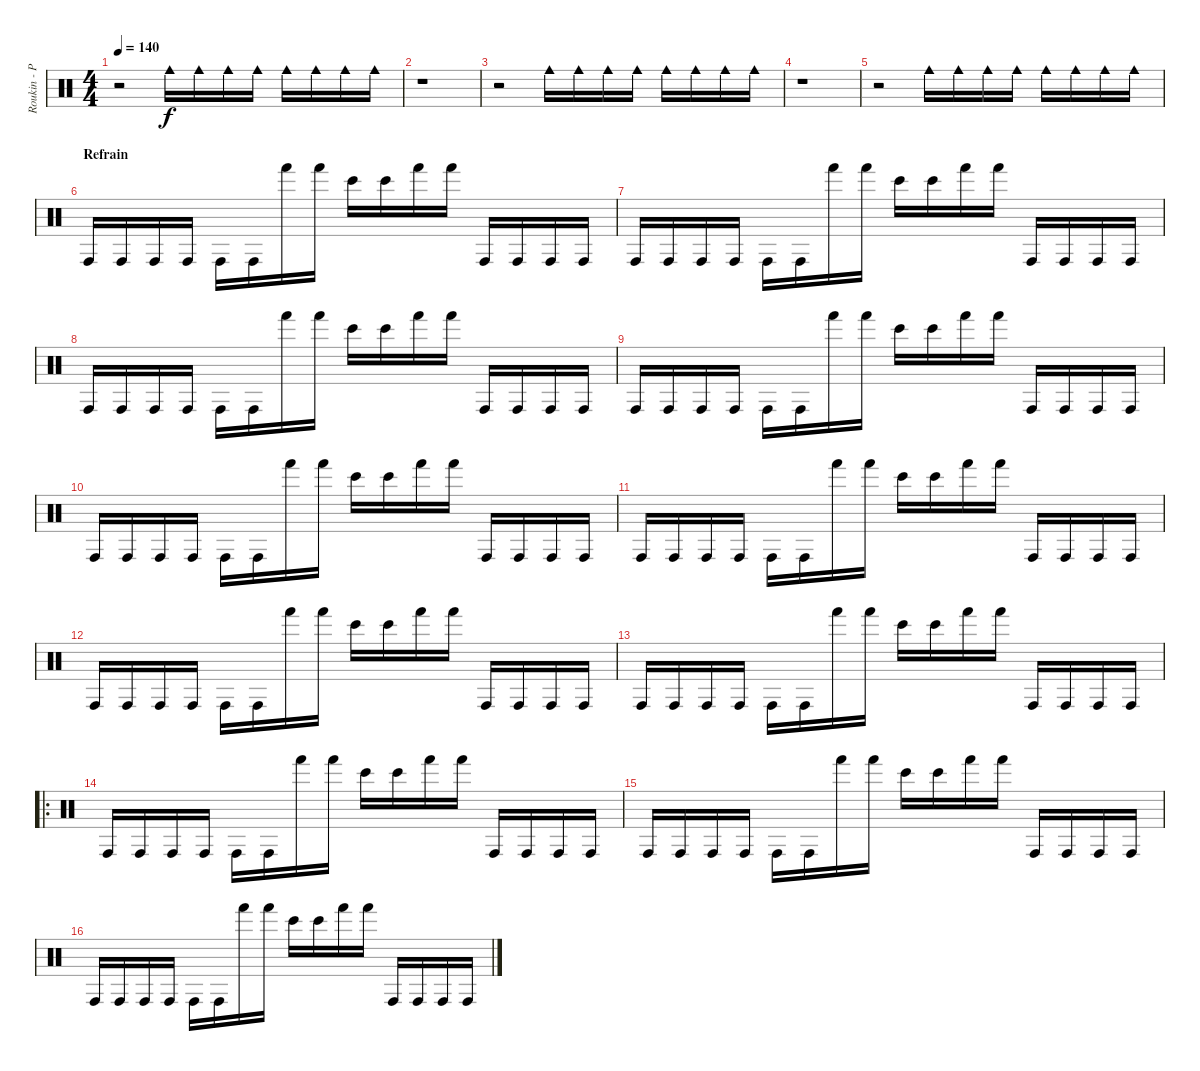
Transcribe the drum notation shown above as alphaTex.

\track ("Roukin - Percus" "Roukin - P") {instrument percussion}
\staff {score}
\articulation defaults
\ts (4 4)
\tempo 140
\clef neutral
\ks c
r.2{dy f} "Cowbell medium (hit)".16 "Cowbell medium (hit)".16 "Cowbell medium (hit)".16 "Cowbell medium (hit)".16 "Cowbell medium (hit)".16 "Cowbell medium (hit)".16 "Cowbell medium (hit)".16 "Cowbell medium (hit)".16 |
r.1 |
r.2 "Cowbell medium (hit)".16 "Cowbell medium (hit)".16 "Cowbell medium (hit)".16 "Cowbell medium (hit)".16 "Cowbell medium (hit)".16 "Cowbell medium (hit)".16 "Cowbell medium (hit)".16 "Cowbell medium (hit)".16 |
r.1 |
r.2 "Cowbell medium (hit)".16 "Cowbell medium (hit)".16 "Cowbell medium (hit)".16 "Cowbell medium (hit)".16 "Cowbell medium (hit)".16 "Cowbell medium (hit)".16 "Cowbell medium (hit)".16 "Cowbell medium (hit)".16 |
\section ("" "Refrain")
"Conga high (hit)".16 "Conga high (hit)".16 "Conga high (hit)".16 "Conga high (hit)".16 "Conga high (hit)".16 "Conga high (hit)".16 "Hand (hit)".16 "Hand (hit)".16 "Bongo High (hit)".16 "Bongo High (hit)".16 "Hand (hit)".16 "Hand (hit)".16 "Conga high (hit)".16 "Conga high (hit)".16 "Conga high (hit)".16 "Conga high (hit)".16 |
"Conga high (hit)".16 "Conga high (hit)".16 "Conga high (hit)".16 "Conga high (hit)".16 "Conga high (hit)".16 "Conga high (hit)".16 "Hand (hit)".16 "Hand (hit)".16 "Bongo High (hit)".16 "Bongo High (hit)".16 "Hand (hit)".16 "Hand (hit)".16 "Conga high (hit)".16 "Conga high (hit)".16 "Conga high (hit)".16 "Conga high (hit)".16 |
"Conga high (hit)".16 "Conga high (hit)".16 "Conga high (hit)".16 "Conga high (hit)".16 "Conga high (hit)".16 "Conga high (hit)".16 "Hand (hit)".16 "Hand (hit)".16 "Bongo High (hit)".16 "Bongo High (hit)".16 "Hand (hit)".16 "Hand (hit)".16 "Conga high (hit)".16 "Conga high (hit)".16 "Conga high (hit)".16 "Conga high (hit)".16 |
"Conga high (hit)".16 "Conga high (hit)".16 "Conga high (hit)".16 "Conga high (hit)".16 "Conga high (hit)".16 "Conga high (hit)".16 "Hand (hit)".16 "Hand (hit)".16 "Bongo High (hit)".16 "Bongo High (hit)".16 "Hand (hit)".16 "Hand (hit)".16 "Conga high (hit)".16 "Conga high (hit)".16 "Conga high (hit)".16 "Conga high (hit)".16 |
"Conga high (hit)".16 "Conga high (hit)".16 "Conga high (hit)".16 "Conga high (hit)".16 "Conga high (hit)".16 "Conga high (hit)".16 "Hand (hit)".16 "Hand (hit)".16 "Bongo High (hit)".16 "Bongo High (hit)".16 "Hand (hit)".16 "Hand (hit)".16 "Conga high (hit)".16 "Conga high (hit)".16 "Conga high (hit)".16 "Conga high (hit)".16 |
"Conga high (hit)".16 "Conga high (hit)".16 "Conga high (hit)".16 "Conga high (hit)".16 "Conga high (hit)".16 "Conga high (hit)".16 "Hand (hit)".16 "Hand (hit)".16 "Bongo High (hit)".16 "Bongo High (hit)".16 "Hand (hit)".16 "Hand (hit)".16 "Conga high (hit)".16 "Conga high (hit)".16 "Conga high (hit)".16 "Conga high (hit)".16 |
"Conga high (hit)".16 "Conga high (hit)".16 "Conga high (hit)".16 "Conga high (hit)".16 "Conga high (hit)".16 "Conga high (hit)".16 "Hand (hit)".16 "Hand (hit)".16 "Bongo High (hit)".16 "Bongo High (hit)".16 "Hand (hit)".16 "Hand (hit)".16 "Conga high (hit)".16 "Conga high (hit)".16 "Conga high (hit)".16 "Conga high (hit)".16 |
"Conga high (hit)".16 "Conga high (hit)".16 "Conga high (hit)".16 "Conga high (hit)".16 "Conga high (hit)".16 "Conga high (hit)".16 "Hand (hit)".16 "Hand (hit)".16 "Bongo High (hit)".16 "Bongo High (hit)".16 "Hand (hit)".16 "Hand (hit)".16 "Conga high (hit)".16 "Conga high (hit)".16 "Conga high (hit)".16 "Conga high (hit)".16 |
\ro "Conga high (hit)".16 "Conga high (hit)".16 "Conga high (hit)".16 "Conga high (hit)".16 "Conga high (hit)".16 "Conga high (hit)".16 "Hand (hit)".16 "Hand (hit)".16 "Bongo High (hit)".16 "Bongo High (hit)".16 "Hand (hit)".16 "Hand (hit)".16 "Conga high (hit)".16 "Conga high (hit)".16 "Conga high (hit)".16 "Conga high (hit)".16
|
"Conga high (hit)".16 "Conga high (hit)".16 "Conga high (hit)".16 "Conga high (hit)".16 "Conga high (hit)".16 "Conga high (hit)".16 "Hand (hit)".16 "Hand (hit)".16 "Bongo High (hit)".16 "Bongo High (hit)".16 "Hand (hit)".16 "Hand (hit)".16 "Conga high (hit)".16 "Conga high (hit)".16 "Conga high (hit)".16 "Conga high (hit)".16 |
"Conga high (hit)".16 "Conga high (hit)".16 "Conga high (hit)".16 "Conga high (hit)".16 "Conga high (hit)".16 "Conga high (hit)".16 "Hand (hit)".16 "Hand (hit)".16 "Bongo High (hit)".16 "Bongo High (hit)".16 "Hand (hit)".16 "Hand (hit)".16 "Conga high (hit)".16 "Conga high (hit)".16 "Conga high (hit)".16 "Conga high (hit)".16
